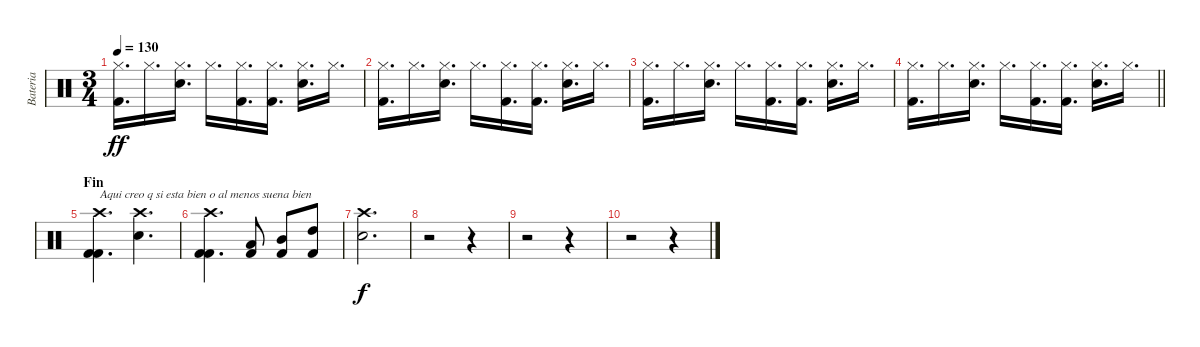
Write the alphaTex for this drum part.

\track ("Bateria" "Bateria") {instrument percussion}
\staff {score}
\articulation defaults
\ts (3 4)
\tempo 130
\clef neutral
\ks c
("Hi-Hat (closed)" "Kick (hit) 2").16{d dy ff} "Hi-Hat (closed)".16{d} ("Hi-Hat (closed)" "Snare (hit) 2").16{d} "Hi-Hat (closed)".16{d} ("Hi-Hat (closed)" "Kick (hit) 2").16{d} ("Hi-Hat (closed)" "Kick (hit) 2").16{d} ("Hi-Hat (closed)" "Snare (hit) 2").16{d} "Hi-Hat (closed)".16{d} |
("Hi-Hat (closed)" "Kick (hit) 2").16{d} "Hi-Hat (closed)".16{d} ("Hi-Hat (closed)" "Snare (hit) 2").16{d} "Hi-Hat (closed)".16{d} ("Hi-Hat (closed)" "Kick (hit) 2").16{d} ("Hi-Hat (closed)" "Kick (hit) 2").16{d} ("Hi-Hat (closed)" "Snare (hit) 2").16{d} "Hi-Hat (closed)".16{d} |
("Hi-Hat (closed)" "Kick (hit) 2").16{d} "Hi-Hat (closed)".16{d} ("Hi-Hat (closed)" "Snare (hit) 2").16{d} "Hi-Hat (closed)".16{d} ("Hi-Hat (closed)" "Kick (hit) 2").16{d} ("Hi-Hat (closed)" "Kick (hit) 2").16{d} ("Hi-Hat (closed)" "Snare (hit) 2").16{d} "Hi-Hat (closed)".16{d} |
\barLineRight lightlight
("Hi-Hat (closed)" "Kick (hit) 2").16{d} "Hi-Hat (closed)".16{d} ("Hi-Hat (closed)" "Snare (hit) 2").16{d} "Hi-Hat (closed)".16{d} ("Hi-Hat (closed)" "Kick (hit) 2").16{d} ("Hi-Hat (closed)" "Kick (hit) 2").16{d} ("Hi-Hat (closed)" "Snare (hit) 2").16{d} "Hi-Hat (closed)".16{d} |
\section ("" "Fin")
("Crash high (hit)" "Kick (hit) 2" "Kick (hit) 2").4{d txt "Aqui creo q si esta bien o al menos suena bien"} ("Crash high (hit)" "Snare (hit) 2").4{d} |
("Crash high (hit)" "Kick (hit) 2" "Kick (hit) 2").4{d} ("Low Tom (hit)" "Kick (hit) 2").8 ("Mid Tom (hit)" "Kick (hit) 2").8 ("High Tom (hit)" "Kick (hit) 2").8 |
("Crash high (hit)" "Snare (hit) 2").2{d dy f} |
r.2 r.4 |
r.2 r.4 |
r.2 r.4
